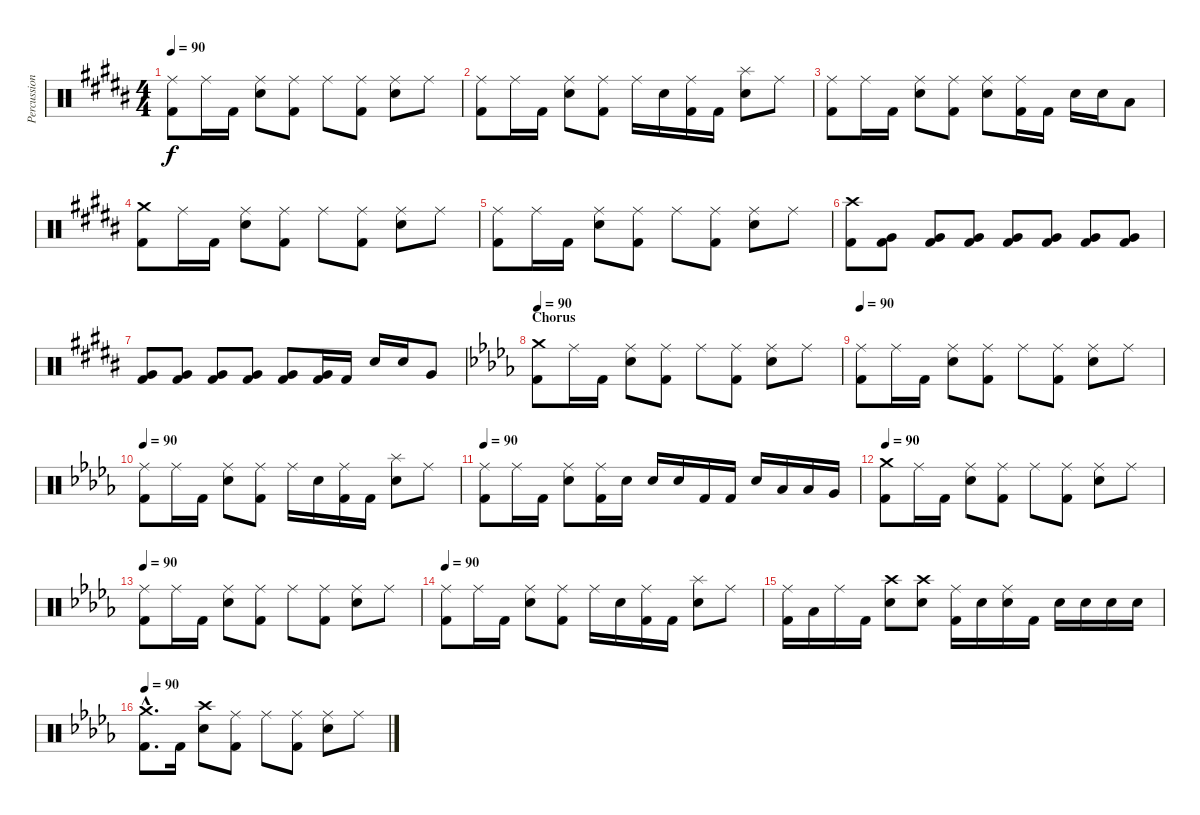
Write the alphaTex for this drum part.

\track ("Percussion" "Percussion") {instrument percussion}
\staff {score}
\articulation defaults
\ts (4 4)
\tempo 90
\clef neutral
\ks b
("Ride (middle)" "Kick (hit) 2").8{dy f} "Ride (middle)".16 "Kick (hit) 2".16 ("Ride (middle)" "Electric Snare (hit)").8 ("Ride (middle)" "Kick (hit) 2").8 "Ride (middle)".8 ("Ride (middle)" "Kick (hit) 2").8 ("Ride (middle)" "Electric Snare (hit)").8 "Ride (middle)".8 |
("Ride (middle)" "Kick (hit) 2").8 "Ride (middle)".16 "Kick (hit) 2".16 ("Ride (middle)" "Electric Snare (hit)").8 ("Ride (middle)" "Kick (hit) 2").8 "Ride (middle)".16 "Electric Snare (hit)".16 ("Ride (middle)" "Kick (hit) 2").16 "Kick (hit) 2".16 ("Splash (hit)" "Electric Snare (hit)").8 "Ride (middle)".8 |
("Ride (middle)" "Kick (hit) 2").8 "Ride (middle)".16 "Kick (hit) 2".16 ("Ride (middle)" "Electric Snare (hit)").8 ("Ride (middle)" "Kick (hit) 2").8 ("Ride (middle)" "Electric Snare (hit)").8 ("Ride (middle)" "Kick (hit) 2").16 "Kick (hit) 2".16 "Electric Snare (hit)".16 "Electric Snare (hit)".16 "Low Tom (hit)".8 |
("Crash medium (hit)" "Kick (hit) 2").8 "Ride (middle)".16 "Kick (hit) 2".16 ("Ride (middle)" "Electric Snare (hit)").8 ("Ride (middle)" "Kick (hit) 2").8 "Ride (middle)".8 ("Ride (middle)" "Kick (hit) 2").8 ("Ride (middle)" "Electric Snare (hit)").8 "Ride (middle)".8 |
("Ride (middle)" "Kick (hit) 2").8 "Ride (middle)".16 "Kick (hit) 2".16 ("Ride (middle)" "Electric Snare (hit)").8 ("Ride (middle)" "Kick (hit) 2").8 "Ride (middle)".8 ("Ride (middle)" "Kick (hit) 2").8 ("Ride (middle)" "Electric Snare (hit)").8 "Ride (middle)".8 |
("Crash high (hit)" "Kick (hit) 2").8 ("Very Low Tom (hit)" "Kick (hit) 2").8 ("Very Low Tom (hit)" "Kick (hit) 2").8 ("Very Low Tom (hit)" "Kick (hit) 2").8 ("Very Low Tom (hit)" "Kick (hit) 2").8 ("Very Low Tom (hit)" "Kick (hit) 2").8 ("Very Low Tom (hit)" "Kick (hit) 2").8 ("Very Low Tom (hit)" "Kick (hit) 2").8 |
("Very Low Tom (hit)" "Kick (hit) 2").8 ("Very Low Tom (hit)" "Kick (hit) 2").8 ("Very Low Tom (hit)" "Kick (hit) 2").8 ("Very Low Tom (hit)" "Kick (hit) 2").8 ("Very Low Tom (hit)" "Kick (hit) 2").8 ("Very Low Tom (hit)" "Kick (hit) 2").16 "Kick (hit) 2".16 "Electric Snare (hit)".16 "Electric Snare (hit)".16 "Very Low Tom (hit)".8 |
\section ("" "Chorus")
\tempo 90
\ks db
("Crash medium (hit)" "Kick (hit) 2").8 "Ride (middle)".16 "Kick (hit) 2".16 ("Ride (middle)" "Electric Snare (hit)").8 ("Ride (middle)" "Kick (hit) 2").8 "Ride (middle)".8 ("Ride (middle)" "Kick (hit) 2").8 ("Ride (middle)" "Electric Snare (hit)").8 "Ride (middle)".8 |
\tempo 90
("Ride (middle)" "Kick (hit) 2").8 "Ride (middle)".16 "Kick (hit) 2".16 ("Ride (middle)" "Electric Snare (hit)").8 ("Ride (middle)" "Kick (hit) 2").8 "Ride (middle)".8 ("Ride (middle)" "Kick (hit) 2").8 ("Ride (middle)" "Electric Snare (hit)").8 "Ride (middle)".8 |
\tempo 90
("Ride (middle)" "Kick (hit) 2").8 "Ride (middle)".16 "Kick (hit) 2".16 ("Ride (middle)" "Electric Snare (hit)").8 ("Ride (middle)" "Kick (hit) 2").8 "Ride (middle)".16 "Electric Snare (hit)".16 ("Ride (middle)" "Kick (hit) 2").16 "Kick (hit) 2".16 ("Splash (hit)" "Electric Snare (hit)").8 "Ride (middle)".8 |
\tempo 90
("Ride (middle)" "Kick (hit) 2").8 "Ride (middle)".16 "Kick (hit) 2".16 ("Ride (middle)" "Electric Snare (hit)").8 ("Ride (middle)" "Kick (hit) 2").16 "Electric Snare (hit)".16 "Electric Snare (hit)".16 "Electric Snare (hit)".16 "Kick (hit) 2".16 "Kick (hit) 2".16 "Electric Snare (hit)".16 "Low Tom (hit)".16 "Low Tom (hit)".16 "Very Low Tom (hit)".16 |
\tempo 90
("Crash medium (hit)" "Kick (hit) 2").8 "Ride (middle)".16 "Kick (hit) 2".16 ("Ride (middle)" "Electric Snare (hit)").8 ("Ride (middle)" "Kick (hit) 2").8 "Ride (middle)".8 ("Ride (middle)" "Kick (hit) 2").8 ("Ride (middle)" "Electric Snare (hit)").8 "Ride (middle)".8 |
\tempo 90
("Ride (middle)" "Kick (hit) 2").8 "Ride (middle)".16 "Kick (hit) 2".16 ("Ride (middle)" "Electric Snare (hit)").8 ("Ride (middle)" "Kick (hit) 2").8 "Ride (middle)".8 ("Ride (middle)" "Kick (hit) 2").8 ("Ride (middle)" "Electric Snare (hit)").8 "Ride (middle)".8 |
\tempo 90
("Ride (middle)" "Kick (hit) 2").8 "Ride (middle)".16 "Kick (hit) 2".16 ("Ride (middle)" "Electric Snare (hit)").8 ("Ride (middle)" "Kick (hit) 2").8 "Ride (middle)".16 "Electric Snare (hit)".16 ("Ride (middle)" "Kick (hit) 2").16 "Kick (hit) 2".16 ("Splash (hit)" "Electric Snare (hit)").8 "Ride (middle)".8 |
("Ride (middle)" "Kick (hit) 2").16 "Low Tom (hit)".16 "Ride (middle)".16 "Kick (hit) 2".16 ("Crash high (hit)" "Electric Snare (hit)").8 ("Crash high (hit)" "Electric Snare (hit)").8 ("Ride (middle)" "Kick (hit) 2").16 "Electric Snare (hit)".16 ("Ride (middle)" "Electric Snare (hit)").16 "Kick (hit) 2".16 "Electric Snare (hit)".16 "Electric Snare (hit)".16 "Electric Snare (hit)".16 "Electric Snare (hit)".16 |
\tempo 90
("Crash medium (hit)"{hac} "Kick (hit) 2"{hac}).8{d} "Kick (hit) 2".16 ("Crash high (hit)" "Electric Snare (hit)").8 ("Ride (middle)" "Kick (hit) 2").8 "Ride (middle)".8 ("Ride (middle)" "Kick (hit) 2").8 ("Ride (middle)" "Electric Snare (hit)").8 "Ride (middle)".8
